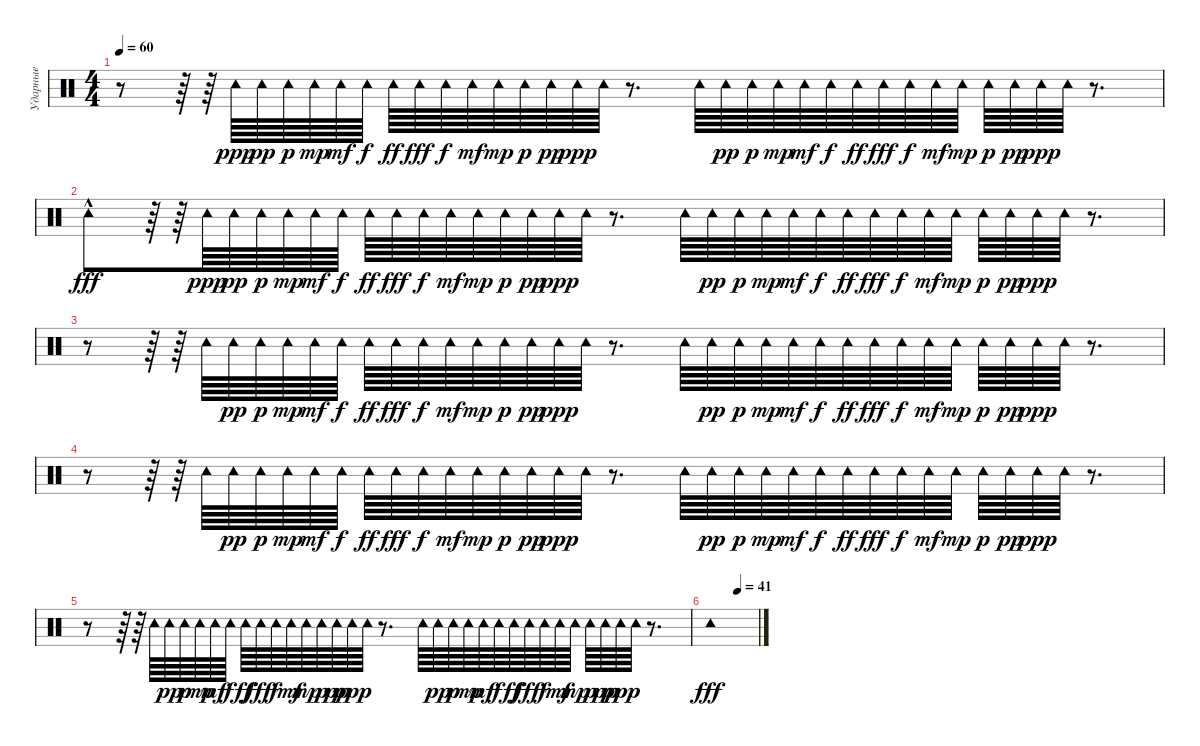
\track ("Ударные" "Ударные") {instrument percussion}
\staff {score}
\articulation defaults
\ts (4 4)
\tempo 60
\clef neutral
\ks c
r.8{dy ppp} r.64 r.64 "Tambourine (hit)".64 "Tambourine (hit)".64{dy pp} "Tambourine (hit)".64{dy p} "Tambourine (hit)".64{dy mp} "Tambourine (hit)".64{dy mf} "Tambourine (hit)".64{dy f} "Tambourine (hit)".64{dy ff} "Tambourine (hit)".64{dy fff} "Tambourine (hit)".64{dy f} "Tambourine (hit)".64{dy mf} "Tambourine (hit)".64{dy mp} "Tambourine (hit)".64{dy p} "Tambourine (hit)".64{dy pp} "Tambourine (hit)".64{dy ppp} "Tambourine (hit)".64 r.8{d} "Tambourine (hit)".64 "Tambourine (hit)".64{dy pp} "Tambourine (hit)".64{dy p} "Tambourine (hit)".64{dy mp} "Tambourine (hit)".64{dy mf} "Tambourine (hit)".64{dy f} "Tambourine (hit)".64{dy ff} "Tambourine (hit)".64{dy fff} "Tambourine (hit)".64{dy f} "Tambourine (hit)".64{dy mf} "Tambourine (hit)".64{dy mp} "Tambourine (hit)".64{dy p} "Tambourine (hit)".64{dy pp} "Tambourine (hit)".64{dy ppp} "Tambourine (hit)".64 r.8{d} |
"Tambourine (hit)"{hac}.8{dy fff} r.64 r.64 "Tambourine (hit)".64{dy ppp} "Tambourine (hit)".64{dy pp} "Tambourine (hit)".64{dy p} "Tambourine (hit)".64{dy mp} "Tambourine (hit)".64{dy mf} "Tambourine (hit)".64{dy f} "Tambourine (hit)".64{dy ff} "Tambourine (hit)".64{dy fff} "Tambourine (hit)".64{dy f} "Tambourine (hit)".64{dy mf} "Tambourine (hit)".64{dy mp} "Tambourine (hit)".64{dy p} "Tambourine (hit)".64{dy pp} "Tambourine (hit)".64{dy ppp} "Tambourine (hit)".64 r.8{d} "Tambourine (hit)".64 "Tambourine (hit)".64{dy pp} "Tambourine (hit)".64{dy p} "Tambourine (hit)".64{dy mp} "Tambourine (hit)".64{dy mf} "Tambourine (hit)".64{dy f} "Tambourine (hit)".64{dy ff} "Tambourine (hit)".64{dy fff} "Tambourine (hit)".64{dy f} "Tambourine (hit)".64{dy mf} "Tambourine (hit)".64{dy mp} "Tambourine (hit)".64{dy p} "Tambourine (hit)".64{dy pp} "Tambourine (hit)".64{dy ppp} "Tambourine (hit)".64 r.8{d} |
r.8 r.64 r.64 "Tambourine (hit)".64 "Tambourine (hit)".64{dy pp} "Tambourine (hit)".64{dy p} "Tambourine (hit)".64{dy mp} "Tambourine (hit)".64{dy mf} "Tambourine (hit)".64{dy f} "Tambourine (hit)".64{dy ff} "Tambourine (hit)".64{dy fff} "Tambourine (hit)".64{dy f} "Tambourine (hit)".64{dy mf} "Tambourine (hit)".64{dy mp} "Tambourine (hit)".64{dy p} "Tambourine (hit)".64{dy pp} "Tambourine (hit)".64{dy ppp} "Tambourine (hit)".64 r.8{d} "Tambourine (hit)".64 "Tambourine (hit)".64{dy pp} "Tambourine (hit)".64{dy p} "Tambourine (hit)".64{dy mp} "Tambourine (hit)".64{dy mf} "Tambourine (hit)".64{dy f} "Tambourine (hit)".64{dy ff} "Tambourine (hit)".64{dy fff} "Tambourine (hit)".64{dy f} "Tambourine (hit)".64{dy mf} "Tambourine (hit)".64{dy mp} "Tambourine (hit)".64{dy p} "Tambourine (hit)".64{dy pp} "Tambourine (hit)".64{dy ppp} "Tambourine (hit)".64 r.8{d} |
r.8 r.64 r.64 "Tambourine (hit)".64 "Tambourine (hit)".64{dy pp} "Tambourine (hit)".64{dy p} "Tambourine (hit)".64{dy mp} "Tambourine (hit)".64{dy mf} "Tambourine (hit)".64{dy f} "Tambourine (hit)".64{dy ff} "Tambourine (hit)".64{dy fff} "Tambourine (hit)".64{dy f} "Tambourine (hit)".64{dy mf} "Tambourine (hit)".64{dy mp} "Tambourine (hit)".64{dy p} "Tambourine (hit)".64{dy pp} "Tambourine (hit)".64{dy ppp} "Tambourine (hit)".64 r.8{d} "Tambourine (hit)".64 "Tambourine (hit)".64{dy pp} "Tambourine (hit)".64{dy p} "Tambourine (hit)".64{dy mp} "Tambourine (hit)".64{dy mf} "Tambourine (hit)".64{dy f} "Tambourine (hit)".64{dy ff} "Tambourine (hit)".64{dy fff} "Tambourine (hit)".64{dy f} "Tambourine (hit)".64{dy mf} "Tambourine (hit)".64{dy mp} "Tambourine (hit)".64{dy p} "Tambourine (hit)".64{dy pp} "Tambourine (hit)".64{dy ppp} "Tambourine (hit)".64 r.8{d} |
r.8 r.64 r.64 "Tambourine (hit)".64 "Tambourine (hit)".64{dy pp} "Tambourine (hit)".64{dy p} "Tambourine (hit)".64{dy mp} "Tambourine (hit)".64{dy mf} "Tambourine (hit)".64{dy f} "Tambourine (hit)".64{dy ff} "Tambourine (hit)".64{dy fff} "Tambourine (hit)".64{dy f} "Tambourine (hit)".64{dy mf} "Tambourine (hit)".64{dy mp} "Tambourine (hit)".64{dy p} "Tambourine (hit)".64{dy pp} "Tambourine (hit)".64{dy ppp} "Tambourine (hit)".64 r.8{d} "Tambourine (hit)".64 "Tambourine (hit)".64{dy pp} "Tambourine (hit)".64{dy p} "Tambourine (hit)".64{dy mp} "Tambourine (hit)".64{dy mf} "Tambourine (hit)".64{dy f} "Tambourine (hit)".64{dy ff} "Tambourine (hit)".64{dy fff} "Tambourine (hit)".64{dy f} "Tambourine (hit)".64{dy mf} "Tambourine (hit)".64{dy mp} "Tambourine (hit)".64{dy p} "Tambourine (hit)".64{dy pp} "Tambourine (hit)".64{dy ppp} "Tambourine (hit)".64 r.8{d} |
\tempo (41 0.5833333333333334)
"Tambourine (hit)".1{dy fff}
